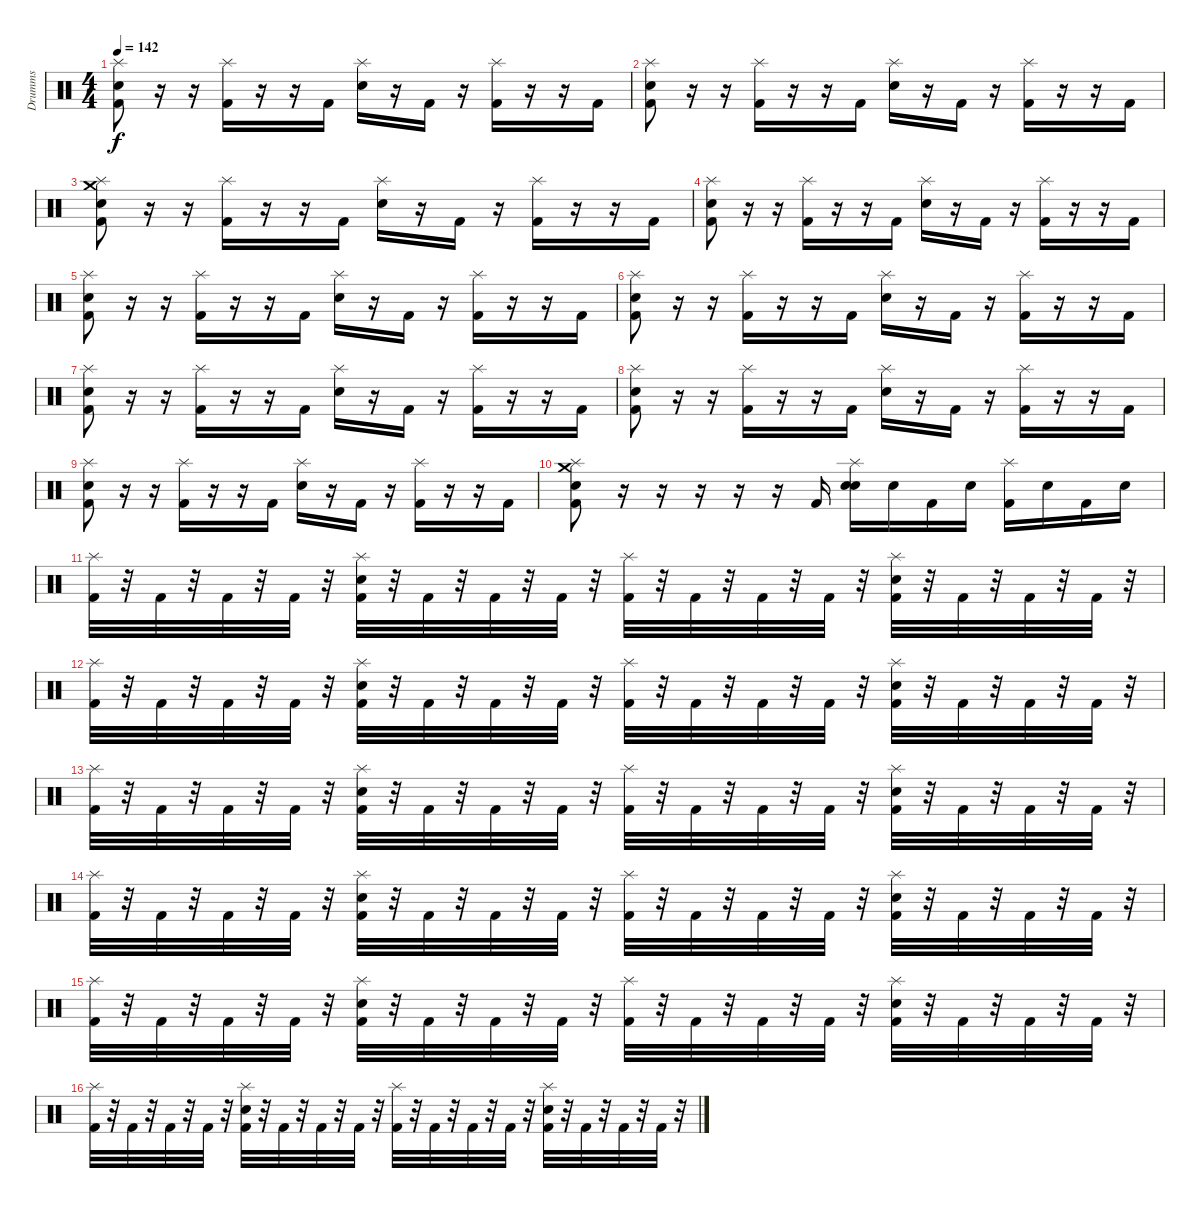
\track ("Drumms" "Drumms") {instrument percussion}
\staff {score}
\articulation defaults
\ts (4 4)
\tempo 142
\clef neutral
\ks c
("Splash (hit)" "Kick (hit) 2" "Snare (hit) 2").8{dy f} r.16 r.16 ("Splash (hit)" "Kick (hit) 2").16 r.16 r.16 "Kick (hit) 2".16 ("Splash (hit)" "Snare (hit) 2").16 r.16 "Kick (hit) 2".16 r.16 ("Splash (hit)" "Kick (hit) 2").16 r.16 r.16 "Kick (hit) 2".16 |
("Splash (hit)" "Kick (hit) 2" "Snare (hit) 2").8 r.16 r.16 ("Splash (hit)" "Kick (hit) 2").16 r.16 r.16 "Kick (hit) 2".16 ("Splash (hit)" "Snare (hit) 2").16 r.16 "Kick (hit) 2".16 r.16 ("Splash (hit)" "Kick (hit) 2").16 r.16 r.16 "Kick (hit) 2".16 |
("Crash medium (hit)" "Splash (hit)" "Kick (hit) 2" "Snare (hit) 2").8 r.16 r.16 ("Splash (hit)" "Kick (hit) 2").16 r.16 r.16 "Kick (hit) 2".16 ("Splash (hit)" "Snare (hit) 2").16 r.16 "Kick (hit) 2".16 r.16 ("Splash (hit)" "Kick (hit) 2").16 r.16 r.16 "Kick (hit) 2".16 |
("Splash (hit)" "Kick (hit) 2" "Snare (hit) 2").8 r.16 r.16 ("Splash (hit)" "Kick (hit) 2").16 r.16 r.16 "Kick (hit) 2".16 ("Splash (hit)" "Snare (hit) 2").16 r.16 "Kick (hit) 2".16 r.16 ("Splash (hit)" "Kick (hit) 2").16 r.16 r.16 "Kick (hit) 2".16 |
("Splash (hit)" "Kick (hit) 2" "Snare (hit) 2").8 r.16 r.16 ("Splash (hit)" "Kick (hit) 2").16 r.16 r.16 "Kick (hit) 2".16 ("Splash (hit)" "Snare (hit) 2").16 r.16 "Kick (hit) 2".16 r.16 ("Splash (hit)" "Kick (hit) 2").16 r.16 r.16 "Kick (hit) 2".16 |
("Splash (hit)" "Kick (hit) 2" "Snare (hit) 2").8 r.16 r.16 ("Splash (hit)" "Kick (hit) 2").16 r.16 r.16 "Kick (hit) 2".16 ("Splash (hit)" "Snare (hit) 2").16 r.16 "Kick (hit) 2".16 r.16 ("Splash (hit)" "Kick (hit) 2").16 r.16 r.16 "Kick (hit) 2".16 |
("Splash (hit)" "Kick (hit) 2" "Snare (hit) 2").8 r.16 r.16 ("Splash (hit)" "Kick (hit) 2").16 r.16 r.16 "Kick (hit) 2".16 ("Splash (hit)" "Snare (hit) 2").16 r.16 "Kick (hit) 2".16 r.16 ("Splash (hit)" "Kick (hit) 2").16 r.16 r.16 "Kick (hit) 2".16 |
("Splash (hit)" "Kick (hit) 2" "Snare (hit) 2").8 r.16 r.16 ("Splash (hit)" "Kick (hit) 2").16 r.16 r.16 "Kick (hit) 2".16 ("Splash (hit)" "Snare (hit) 2").16 r.16 "Kick (hit) 2".16 r.16 ("Splash (hit)" "Kick (hit) 2").16 r.16 r.16 "Kick (hit) 2".16 |
("Splash (hit)" "Kick (hit) 2" "Snare (hit) 2").8 r.16 r.16 ("Splash (hit)" "Kick (hit) 2").16 r.16 r.16 "Kick (hit) 2".16 ("Splash (hit)" "Snare (hit) 2").16 r.16 "Kick (hit) 2".16 r.16 ("Splash (hit)" "Kick (hit) 2").16 r.16 r.16 "Kick (hit) 2".16 |
("Crash medium (hit)" "Splash (hit)" "Kick (hit) 2" "Snare (hit) 2").8 r.16 r.16 r.16 r.16 r.16 "Kick (hit) 2".16 ("Splash (hit)" "Electric Snare (hit)" "Snare (hit) 2").16 "Electric Snare (hit)".16 "Kick (hit) 2".16 "Electric Snare (hit)".16 ("Splash (hit)" "Kick (hit) 2").16 "Electric Snare (hit)".16 "Kick (hit) 2".16 "Electric Snare (hit)".16 |
("Splash (hit)" "Kick (hit) 2").32 r.32 "Kick (hit) 2".32 r.32 "Kick (hit) 2".32 r.32 "Kick (hit) 2".32 r.32 ("Splash (hit)" "Kick (hit) 2" "Electric Snare (hit)").32 r.32 "Kick (hit) 2".32 r.32 "Kick (hit) 2".32 r.32 "Kick (hit) 2".32 r.32 ("Splash (hit)" "Kick (hit) 2").32 r.32 "Kick (hit) 2".32 r.32 "Kick (hit) 2".32 r.32 "Kick (hit) 2".32 r.32 ("Splash (hit)" "Kick (hit) 2" "Electric Snare (hit)").32 r.32 "Kick (hit) 2".32 r.32 "Kick (hit) 2".32 r.32 "Kick (hit) 2".32 r.32 |
("Splash (hit)" "Kick (hit) 2").32 r.32 "Kick (hit) 2".32 r.32 "Kick (hit) 2".32 r.32 "Kick (hit) 2".32 r.32 ("Splash (hit)" "Kick (hit) 2" "Electric Snare (hit)").32 r.32 "Kick (hit) 2".32 r.32 "Kick (hit) 2".32 r.32 "Kick (hit) 2".32 r.32 ("Splash (hit)" "Kick (hit) 2").32 r.32 "Kick (hit) 2".32 r.32 "Kick (hit) 2".32 r.32 "Kick (hit) 2".32 r.32 ("Splash (hit)" "Kick (hit) 2" "Electric Snare (hit)").32 r.32 "Kick (hit) 2".32 r.32 "Kick (hit) 2".32 r.32 "Kick (hit) 2".32 r.32 |
("Splash (hit)" "Kick (hit) 2").32 r.32 "Kick (hit) 2".32 r.32 "Kick (hit) 2".32 r.32 "Kick (hit) 2".32 r.32 ("Splash (hit)" "Kick (hit) 2" "Electric Snare (hit)").32 r.32 "Kick (hit) 2".32 r.32 "Kick (hit) 2".32 r.32 "Kick (hit) 2".32 r.32 ("Splash (hit)" "Kick (hit) 2").32 r.32 "Kick (hit) 2".32 r.32 "Kick (hit) 2".32 r.32 "Kick (hit) 2".32 r.32 ("Splash (hit)" "Kick (hit) 2" "Electric Snare (hit)").32 r.32 "Kick (hit) 2".32 r.32 "Kick (hit) 2".32 r.32 "Kick (hit) 2".32 r.32 |
("Splash (hit)" "Kick (hit) 2").32 r.32 "Kick (hit) 2".32 r.32 "Kick (hit) 2".32 r.32 "Kick (hit) 2".32 r.32 ("Splash (hit)" "Kick (hit) 2" "Electric Snare (hit)").32 r.32 "Kick (hit) 2".32 r.32 "Kick (hit) 2".32 r.32 "Kick (hit) 2".32 r.32 ("Splash (hit)" "Kick (hit) 2").32 r.32 "Kick (hit) 2".32 r.32 "Kick (hit) 2".32 r.32 "Kick (hit) 2".32 r.32 ("Splash (hit)" "Kick (hit) 2" "Electric Snare (hit)").32 r.32 "Kick (hit) 2".32 r.32 "Kick (hit) 2".32 r.32 "Kick (hit) 2".32 r.32 |
("Splash (hit)" "Kick (hit) 2").32 r.32 "Kick (hit) 2".32 r.32 "Kick (hit) 2".32 r.32 "Kick (hit) 2".32 r.32 ("Splash (hit)" "Kick (hit) 2" "Electric Snare (hit)").32 r.32 "Kick (hit) 2".32 r.32 "Kick (hit) 2".32 r.32 "Kick (hit) 2".32 r.32 ("Splash (hit)" "Kick (hit) 2").32 r.32 "Kick (hit) 2".32 r.32 "Kick (hit) 2".32 r.32 "Kick (hit) 2".32 r.32 ("Splash (hit)" "Kick (hit) 2" "Electric Snare (hit)").32 r.32 "Kick (hit) 2".32 r.32 "Kick (hit) 2".32 r.32 "Kick (hit) 2".32 r.32 |
("Splash (hit)" "Kick (hit) 2").32 r.32 "Kick (hit) 2".32 r.32 "Kick (hit) 2".32 r.32 "Kick (hit) 2".32 r.32 ("Splash (hit)" "Kick (hit) 2" "Electric Snare (hit)").32 r.32 "Kick (hit) 2".32 r.32 "Kick (hit) 2".32 r.32 "Kick (hit) 2".32 r.32 ("Splash (hit)" "Kick (hit) 2").32 r.32 "Kick (hit) 2".32 r.32 "Kick (hit) 2".32 r.32 "Kick (hit) 2".32 r.32 ("Splash (hit)" "Kick (hit) 2" "Electric Snare (hit)").32 r.32 "Kick (hit) 2".32 r.32 "Kick (hit) 2".32 r.32 "Kick (hit) 2".32 r.32
